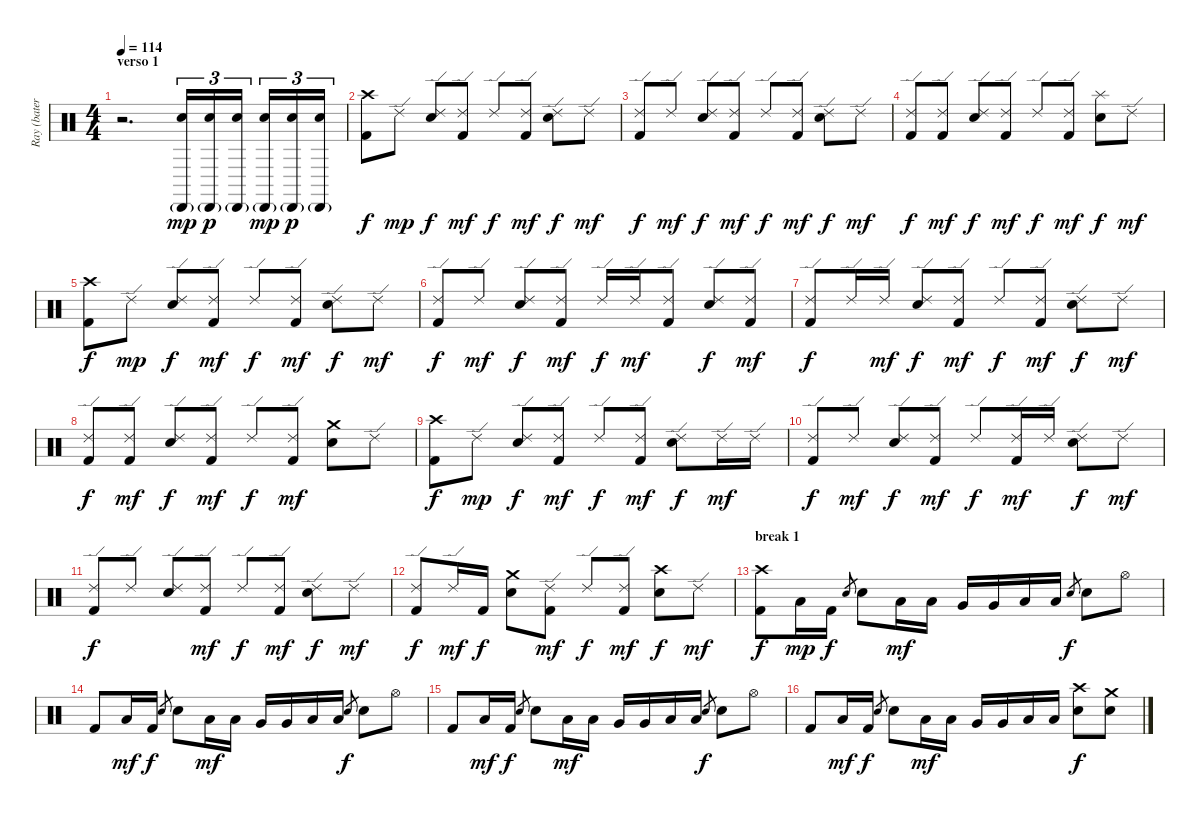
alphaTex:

\track ("Ray (batería)" "Ray (bater") {instrument percussion}
\staff {score}
\articulation defaults
\ts (4 4)
\section ("" "verso 1")
\tempo 114
\clef neutral
\ks c
r.2{d dy mp} ("Cabasa (hit)"{g} "Snare (hit) 2").16{tu (3 2)} ("Cabasa (hit)"{g} "Snare (hit) 2").16{tu (3 2) dy p} ("Cabasa (hit)"{g} "Snare (hit) 2").16{tu (3 2)} ("Cabasa (hit)"{g} "Snare (hit) 2").16{tu (3 2) dy mp} ("Cabasa (hit)"{g} "Snare (hit) 2").16{tu (3 2) dy p} ("Cabasa (hit)"{g} "Snare (hit) 2").16{tu (3 2)} |
("Crash high (hit)" "Kick (hit) 2").8{dy f} "Ride (edge) 2".8{dy mp} ("Ride (edge) 2" "Snare (hit) 2").8{dy f} ("Ride (edge) 2" "Kick (hit) 2").8{dy mf} "Ride (edge) 2".8{dy f} ("Ride (edge) 2" "Kick (hit) 2").8{dy mf} ("Ride (edge) 2" "Snare (hit) 2").8{dy f} "Ride (edge) 2".8{dy mf} |
("Ride (edge) 2" "Kick (hit) 2").8{dy f} "Ride (edge) 2".8{dy mf} ("Ride (edge) 2" "Snare (hit) 2").8{dy f} ("Ride (edge) 2" "Kick (hit) 2").8{dy mf} "Ride (edge) 2".8{dy f} ("Ride (edge) 2" "Kick (hit) 2").8{dy mf} ("Ride (edge) 2" "Snare (hit) 2").8{dy f} "Ride (edge) 2".8{dy mf} |
("Ride (edge) 2" "Kick (hit) 2").8{dy f} ("Ride (edge) 2" "Kick (hit) 2").8{dy mf} ("Ride (edge) 2" "Snare (hit) 2").8{dy f} ("Ride (edge) 2" "Kick (hit) 2").8{dy mf} "Ride (edge) 2".8{dy f} ("Ride (edge) 2" "Kick (hit) 2").8{dy mf} ("Splash (hit)" "Snare (hit) 2").8{dy f} "Ride (edge) 2".8{dy mf} |
("Crash high (hit)" "Kick (hit) 2").8{dy f} "Ride (edge) 2".8{dy mp} ("Ride (edge) 2" "Snare (hit) 2").8{dy f} ("Ride (edge) 2" "Kick (hit) 2").8{dy mf} "Ride (edge) 2".8{dy f} ("Ride (edge) 2" "Kick (hit) 2").8{dy mf} ("Ride (edge) 2" "Snare (hit) 2").8{dy f} "Ride (edge) 2".8{dy mf} |
("Ride (edge) 2" "Kick (hit) 2").8{dy f} "Ride (edge) 2".8{dy mf} ("Ride (edge) 2" "Snare (hit) 2").8{dy f} ("Ride (edge) 2" "Kick (hit) 2").8{dy mf} "Ride (edge) 2".16{dy f} "Ride (edge) 2".16{dy mf} ("Ride (edge) 2" "Kick (hit) 2").8 ("Ride (edge) 2" "Snare (hit) 2").8{dy f} ("Ride (edge) 2" "Kick (hit) 2").8{dy mf} |
("Ride (edge) 2" "Kick (hit) 2").8{dy f} "Ride (edge) 2".16 "Ride (edge) 2".16{dy mf} ("Ride (edge) 2" "Snare (hit) 2").8{dy f} ("Ride (edge) 2" "Kick (hit) 2").8{dy mf} "Ride (edge) 2".8{dy f} ("Ride (edge) 2" "Kick (hit) 2").8{dy mf} ("Ride (edge) 2" "Snare (hit) 2").8{dy f} "Ride (edge) 2".8{dy mf} |
("Ride (edge) 2" "Kick (hit) 2").8{dy f} ("Ride (edge) 2" "Kick (hit) 2").8{dy mf} ("Ride (edge) 2" "Snare (hit) 2").8{dy f} ("Ride (edge) 2" "Kick (hit) 2").8{dy mf} "Ride (edge) 2".8{dy f} ("Ride (edge) 2" "Kick (hit) 2").8{dy mf} ("Crash medium (hit)" "Snare (hit) 2").8 "Ride (edge) 2".8 |
("Crash high (hit)" "Kick (hit) 2").8{dy f} "Ride (edge) 2".8{dy mp} ("Ride (edge) 2" "Snare (hit) 2").8{dy f} ("Ride (edge) 2" "Kick (hit) 2").8{dy mf} "Ride (edge) 2".8{dy f} ("Ride (edge) 2" "Kick (hit) 2").8{dy mf} ("Ride (edge) 2" "Snare (hit) 2").8{dy f} "Ride (edge) 2".16{dy mf} "Ride (edge) 2".16 |
("Ride (edge) 2" "Kick (hit) 2").8{dy f} "Ride (edge) 2".8{dy mf} ("Ride (edge) 2" "Snare (hit) 2").8{dy f} ("Ride (edge) 2" "Kick (hit) 2").8{dy mf} "Ride (edge) 2".8{dy f} ("Ride (edge) 2" "Kick (hit) 2").16{dy mf} "Ride (edge) 2".16 ("Ride (edge) 2" "Snare (hit) 2").8{dy f} "Ride (edge) 2".8{dy mf} |
("Ride (edge) 2" "Kick (hit) 2").8{dy f} "Ride (edge) 2".8 ("Ride (edge) 2" "Snare (hit) 2").8 ("Ride (edge) 2" "Kick (hit) 2").8{dy mf} "Ride (edge) 2".8{dy f} ("Ride (edge) 2" "Kick (hit) 2").8{dy mf} ("Ride (edge) 2" "Snare (hit) 2").8{dy f} "Ride (edge) 2".8{dy mf} |
("Ride (edge) 2" "Kick (hit) 2").8{dy f} "Ride (edge) 2".16{dy mf} "Kick (hit) 2".16{dy f} ("Crash medium (hit)" "Snare (hit) 2").8 ("Ride (edge) 2" "Kick (hit) 2").8{dy mf} "Ride (edge) 2".8{dy f} ("Ride (edge) 2" "Kick (hit) 2").8{dy mf} ("Crash high (hit)" "Snare (hit) 2").8{dy f} "Ride (edge) 2".8{dy mf} |
\section ("" "break 1")
("Crash high (hit)" "Kick (hit) 2").8{dy f} "Low Floor Tom (hit)".16{dy mp} "Kick (hit) 2".16{dy f} "Snare (hit) 2".8{gr} "Snare (hit) 2".8 "Low Tom (hit)".16{dy mf} "Low Tom (hit)".16 "Very Low Tom (hit)".16 "Very Low Tom (hit)".16 "Low Floor Tom (hit)".16 "Low Floor Tom (hit)".16 "Snare (hit) 2".8{gr dy f} "Snare (hit) 2".8 "Hi-Hat (open)".8 |
"Kick (hit) 2".8 "Low Floor Tom (hit)".16{dy mf} "Kick (hit) 2".16{dy f} "Snare (hit) 2".8{gr} "Snare (hit) 2".8 "Low Tom (hit)".16{dy mf} "Low Tom (hit)".16 "Very Low Tom (hit)".16 "Very Low Tom (hit)".16 "Low Floor Tom (hit)".16 "Low Floor Tom (hit)".16 "Snare (hit) 2".8{gr dy f} "Snare (hit) 2".8 "Hi-Hat (open)".8 |
"Kick (hit) 2".8 "Low Floor Tom (hit)".16{dy mf} "Kick (hit) 2".16{dy f} "Snare (hit) 2".8{gr} "Snare (hit) 2".8 "Low Tom (hit)".16{dy mf} "Low Tom (hit)".16 "Very Low Tom (hit)".16 "Very Low Tom (hit)".16 "Low Floor Tom (hit)".16 "Low Floor Tom (hit)".16 "Snare (hit) 2".8{gr dy f} "Snare (hit) 2".8 "Hi-Hat (open)".8 |
"Kick (hit) 2".8 "Low Floor Tom (hit)".16{dy mf} "Kick (hit) 2".16{dy f} "Snare (hit) 2".8{gr} "Snare (hit) 2".8 "Low Tom (hit)".16{dy mf} "Low Tom (hit)".16 "Very Low Tom (hit)".16 "Very Low Tom (hit)".16 "Low Floor Tom (hit)".16 "Low Floor Tom (hit)".16 ("Crash high (hit)" "Snare (hit) 2").8{dy f} ("Crash medium (hit)" "Snare (hit) 2").8
